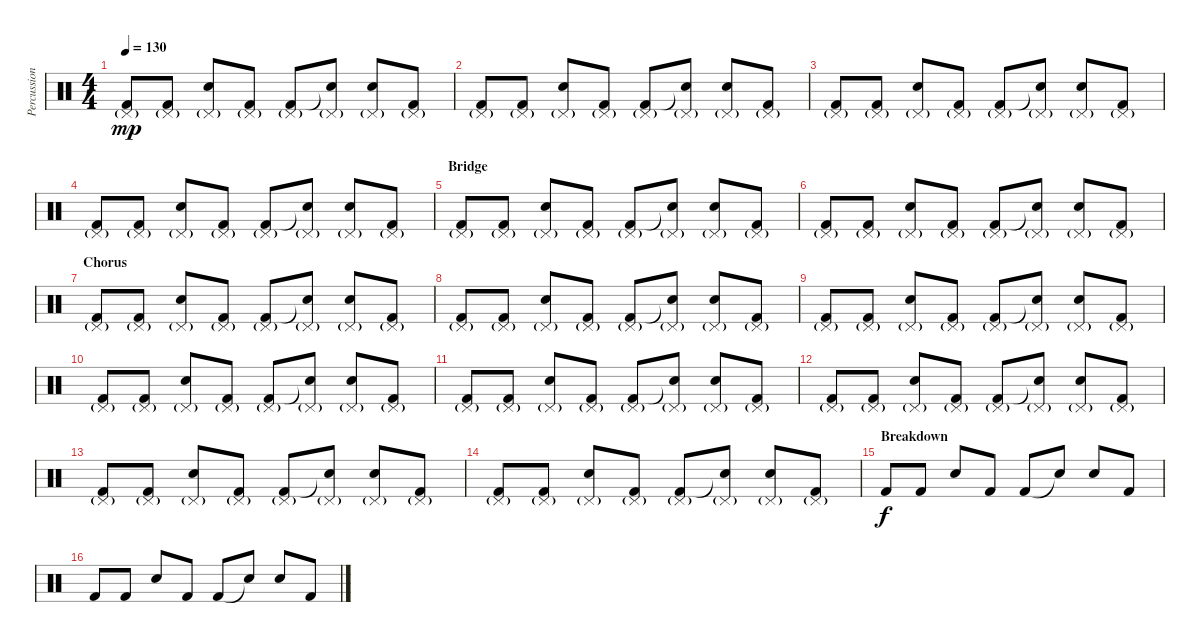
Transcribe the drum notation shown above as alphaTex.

\track ("Percussioni" "Percussion") {instrument percussion}
\staff {score}
\articulation defaults
\ts (4 4)
\tempo 130
\clef neutral
\ks c
("Pedal Hi-Hat (hit)"{g} "Kick (hit) 2").8{dy mp} ("Pedal Hi-Hat (hit)"{g} "Kick (hit) 2").8 ("Pedal Hi-Hat (hit)"{g} "Snare (hit) 2").8 ("Pedal Hi-Hat (hit)"{g} "Kick (hit) 2").8 ("Pedal Hi-Hat (hit)"{g} "Kick (hit) 2").8 ("Pedal Hi-Hat (hit)"{g} "Snare (hit)"{t}).8 ("Pedal Hi-Hat (hit)"{g} "Snare (hit) 2").8 ("Pedal Hi-Hat (hit)"{g} "Kick (hit) 2").8 |
("Pedal Hi-Hat (hit)"{g} "Kick (hit) 2").8 ("Pedal Hi-Hat (hit)"{g} "Kick (hit) 2").8 ("Pedal Hi-Hat (hit)"{g} "Snare (hit) 2").8 ("Pedal Hi-Hat (hit)"{g} "Kick (hit) 2").8 ("Pedal Hi-Hat (hit)"{g} "Kick (hit) 2").8 ("Pedal Hi-Hat (hit)"{g} "Snare (hit)"{t}).8 ("Pedal Hi-Hat (hit)"{g} "Snare (hit) 2").8 ("Pedal Hi-Hat (hit)"{g} "Kick (hit) 2").8 |
("Pedal Hi-Hat (hit)"{g} "Kick (hit) 2").8 ("Pedal Hi-Hat (hit)"{g} "Kick (hit) 2").8 ("Pedal Hi-Hat (hit)"{g} "Snare (hit) 2").8 ("Pedal Hi-Hat (hit)"{g} "Kick (hit) 2").8 ("Pedal Hi-Hat (hit)"{g} "Kick (hit) 2").8 ("Pedal Hi-Hat (hit)"{g} "Snare (hit)"{t}).8 ("Pedal Hi-Hat (hit)"{g} "Snare (hit) 2").8 ("Pedal Hi-Hat (hit)"{g} "Kick (hit) 2").8 |
("Pedal Hi-Hat (hit)"{g} "Kick (hit) 2").8 ("Pedal Hi-Hat (hit)"{g} "Kick (hit) 2").8 ("Pedal Hi-Hat (hit)"{g} "Snare (hit) 2").8 ("Pedal Hi-Hat (hit)"{g} "Kick (hit) 2").8 ("Pedal Hi-Hat (hit)"{g} "Kick (hit) 2").8 ("Pedal Hi-Hat (hit)"{g} "Snare (hit)"{t}).8 ("Pedal Hi-Hat (hit)"{g} "Snare (hit) 2").8 ("Pedal Hi-Hat (hit)"{g} "Kick (hit) 2").8 |
\section ("" "Bridge")
("Pedal Hi-Hat (hit)"{g} "Kick (hit) 2").8 ("Pedal Hi-Hat (hit)"{g} "Kick (hit) 2").8 ("Pedal Hi-Hat (hit)"{g} "Snare (hit) 2").8 ("Pedal Hi-Hat (hit)"{g} "Kick (hit) 2").8 ("Pedal Hi-Hat (hit)"{g} "Kick (hit) 2").8 ("Pedal Hi-Hat (hit)"{g} "Snare (hit)"{t}).8 ("Pedal Hi-Hat (hit)"{g} "Snare (hit) 2").8 ("Pedal Hi-Hat (hit)"{g} "Kick (hit) 2").8 |
("Pedal Hi-Hat (hit)"{g} "Kick (hit) 2").8 ("Pedal Hi-Hat (hit)"{g} "Kick (hit) 2").8 ("Pedal Hi-Hat (hit)"{g} "Snare (hit) 2").8 ("Pedal Hi-Hat (hit)"{g} "Kick (hit) 2").8 ("Pedal Hi-Hat (hit)"{g} "Kick (hit) 2").8 ("Pedal Hi-Hat (hit)"{g} "Snare (hit)"{t}).8 ("Pedal Hi-Hat (hit)"{g} "Snare (hit) 2").8 ("Pedal Hi-Hat (hit)"{g} "Kick (hit) 2").8 |
\section ("" "Chorus")
("Pedal Hi-Hat (hit)"{g} "Kick (hit) 2").8 ("Pedal Hi-Hat (hit)"{g} "Kick (hit) 2").8 ("Pedal Hi-Hat (hit)"{g} "Snare (hit) 2").8 ("Pedal Hi-Hat (hit)"{g} "Kick (hit) 2").8 ("Pedal Hi-Hat (hit)"{g} "Kick (hit) 2").8 ("Pedal Hi-Hat (hit)"{g} "Snare (hit)"{t}).8 ("Pedal Hi-Hat (hit)"{g} "Snare (hit) 2").8 ("Pedal Hi-Hat (hit)"{g} "Kick (hit) 2").8 |
("Pedal Hi-Hat (hit)"{g} "Kick (hit) 2").8 ("Pedal Hi-Hat (hit)"{g} "Kick (hit) 2").8 ("Pedal Hi-Hat (hit)"{g} "Snare (hit) 2").8 ("Pedal Hi-Hat (hit)"{g} "Kick (hit) 2").8 ("Pedal Hi-Hat (hit)"{g} "Kick (hit) 2").8 ("Pedal Hi-Hat (hit)"{g} "Snare (hit)"{t}).8 ("Pedal Hi-Hat (hit)"{g} "Snare (hit) 2").8 ("Pedal Hi-Hat (hit)"{g} "Kick (hit) 2").8 |
("Pedal Hi-Hat (hit)"{g} "Kick (hit) 2").8 ("Pedal Hi-Hat (hit)"{g} "Kick (hit) 2").8 ("Pedal Hi-Hat (hit)"{g} "Snare (hit) 2").8 ("Pedal Hi-Hat (hit)"{g} "Kick (hit) 2").8 ("Pedal Hi-Hat (hit)"{g} "Kick (hit) 2").8 ("Pedal Hi-Hat (hit)"{g} "Snare (hit)"{t}).8 ("Pedal Hi-Hat (hit)"{g} "Snare (hit) 2").8 ("Pedal Hi-Hat (hit)"{g} "Kick (hit) 2").8 |
("Pedal Hi-Hat (hit)"{g} "Kick (hit) 2").8 ("Pedal Hi-Hat (hit)"{g} "Kick (hit) 2").8 ("Pedal Hi-Hat (hit)"{g} "Snare (hit) 2").8 ("Pedal Hi-Hat (hit)"{g} "Kick (hit) 2").8 ("Pedal Hi-Hat (hit)"{g} "Kick (hit) 2").8 ("Pedal Hi-Hat (hit)"{g} "Snare (hit)"{t}).8 ("Pedal Hi-Hat (hit)"{g} "Snare (hit) 2").8 ("Pedal Hi-Hat (hit)"{g} "Kick (hit) 2").8 |
("Pedal Hi-Hat (hit)"{g} "Kick (hit) 2").8 ("Pedal Hi-Hat (hit)"{g} "Kick (hit) 2").8 ("Pedal Hi-Hat (hit)"{g} "Snare (hit) 2").8 ("Pedal Hi-Hat (hit)"{g} "Kick (hit) 2").8 ("Pedal Hi-Hat (hit)"{g} "Kick (hit) 2").8 ("Pedal Hi-Hat (hit)"{g} "Snare (hit)"{t}).8 ("Pedal Hi-Hat (hit)"{g} "Snare (hit) 2").8 ("Pedal Hi-Hat (hit)"{g} "Kick (hit) 2").8 |
("Pedal Hi-Hat (hit)"{g} "Kick (hit) 2").8 ("Pedal Hi-Hat (hit)"{g} "Kick (hit) 2").8 ("Pedal Hi-Hat (hit)"{g} "Snare (hit) 2").8 ("Pedal Hi-Hat (hit)"{g} "Kick (hit) 2").8 ("Pedal Hi-Hat (hit)"{g} "Kick (hit) 2").8 ("Pedal Hi-Hat (hit)"{g} "Snare (hit)"{t}).8 ("Pedal Hi-Hat (hit)"{g} "Snare (hit) 2").8 ("Pedal Hi-Hat (hit)"{g} "Kick (hit) 2").8 |
("Pedal Hi-Hat (hit)"{g} "Kick (hit) 2").8 ("Pedal Hi-Hat (hit)"{g} "Kick (hit) 2").8 ("Pedal Hi-Hat (hit)"{g} "Snare (hit) 2").8 ("Pedal Hi-Hat (hit)"{g} "Kick (hit) 2").8 ("Pedal Hi-Hat (hit)"{g} "Kick (hit) 2").8 ("Pedal Hi-Hat (hit)"{g} "Snare (hit)"{t}).8 ("Pedal Hi-Hat (hit)"{g} "Snare (hit) 2").8 ("Pedal Hi-Hat (hit)"{g} "Kick (hit) 2").8 |
("Pedal Hi-Hat (hit)"{g} "Kick (hit) 2").8 ("Pedal Hi-Hat (hit)"{g} "Kick (hit) 2").8 ("Pedal Hi-Hat (hit)"{g} "Snare (hit) 2").8 ("Pedal Hi-Hat (hit)"{g} "Kick (hit) 2").8 ("Pedal Hi-Hat (hit)"{g} "Kick (hit) 2").8 ("Pedal Hi-Hat (hit)"{g} "Snare (hit)"{t}).8 ("Pedal Hi-Hat (hit)"{g} "Snare (hit) 2").8 ("Pedal Hi-Hat (hit)"{g} "Kick (hit) 2").8 |
\section ("" "Breakdown")
"Kick (hit) 2".8{dy f} "Kick (hit) 2".8 "Snare (hit) 2".8 "Kick (hit) 2".8 "Kick (hit) 2".8 "Snare (hit)"{t}.8 "Snare (hit) 2".8 "Kick (hit) 2".8 |
"Kick (hit) 2".8 "Kick (hit) 2".8 "Snare (hit) 2".8 "Kick (hit) 2".8 "Kick (hit) 2".8 "Snare (hit)"{t}.8 "Snare (hit) 2".8 "Kick (hit) 2".8
